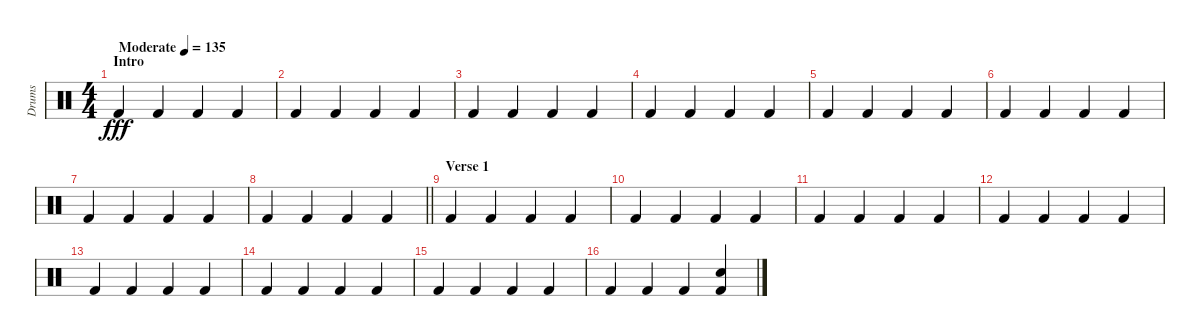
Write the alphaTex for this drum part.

\track ("Drums" "Drums") {instrument percussion}
\staff {score}
\articulation defaults
\ts (4 4)
\section ("" "Intro")
\tempo (135 "Moderate")
\clef neutral
\ks c "Kick (hit) 2".4{dy fff} "Kick (hit) 2".4 "Kick (hit) 2".4 "Kick (hit) 2".4
|
"Kick (hit) 2".4 "Kick (hit) 2".4 "Kick (hit) 2".4 "Kick (hit) 2".4 |
"Kick (hit) 2".4 "Kick (hit) 2".4 "Kick (hit) 2".4 "Kick (hit) 2".4 |
"Kick (hit) 2".4 "Kick (hit) 2".4 "Kick (hit) 2".4 "Kick (hit) 2".4 |
"Kick (hit) 2".4 "Kick (hit) 2".4 "Kick (hit) 2".4 "Kick (hit) 2".4 |
"Kick (hit) 2".4 "Kick (hit) 2".4 "Kick (hit) 2".4 "Kick (hit) 2".4 |
"Kick (hit) 2".4 "Kick (hit) 2".4 "Kick (hit) 2".4 "Kick (hit) 2".4 |
\barLineRight lightlight "Kick (hit) 2".4 "Kick (hit) 2".4 "Kick (hit) 2".4 "Kick (hit) 2".4
|
\section ("" "Verse 1")
"Kick (hit) 2".4 "Kick (hit) 2".4 "Kick (hit) 2".4 "Kick (hit) 2".4 |
"Kick (hit) 2".4 "Kick (hit) 2".4 "Kick (hit) 2".4 "Kick (hit) 2".4 |
"Kick (hit) 2".4 "Kick (hit) 2".4 "Kick (hit) 2".4 "Kick (hit) 2".4 |
"Kick (hit) 2".4 "Kick (hit) 2".4 "Kick (hit) 2".4 "Kick (hit) 2".4 |
"Kick (hit) 2".4 "Kick (hit) 2".4 "Kick (hit) 2".4 "Kick (hit) 2".4 |
"Kick (hit) 2".4 "Kick (hit) 2".4 "Kick (hit) 2".4 "Kick (hit) 2".4 |
"Kick (hit) 2".4 "Kick (hit) 2".4 "Kick (hit) 2".4 "Kick (hit) 2".4 |
"Kick (hit) 2".4 "Kick (hit) 2".4 "Kick (hit) 2".4 ("Kick (hit) 2" "Snare (hit) 2").4
